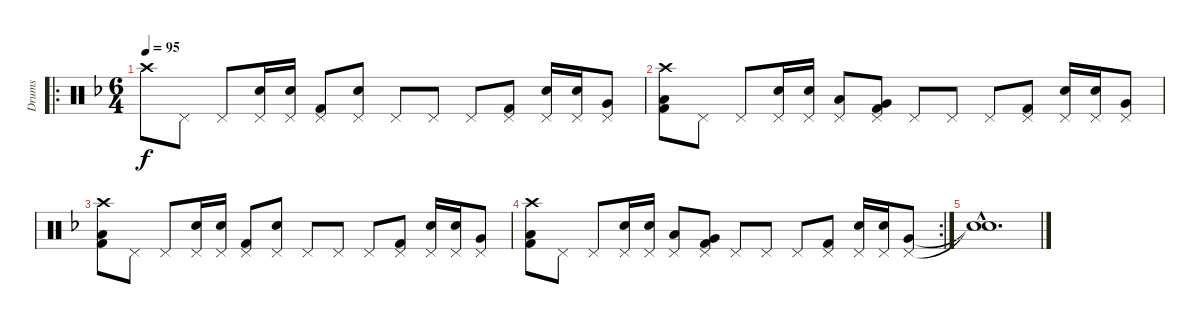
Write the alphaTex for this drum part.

\track ("Drums" "Drums") {instrument percussion}
\staff {score}
\articulation defaults
\ro
\ts (6 4)
\tempo 95
\clef neutral
\ks dminor "Crash high (hit)".8{dy f} "Pedal Hi-Hat (hit)".8 "Pedal Hi-Hat (hit)".8
("Pedal Hi-Hat (hit)" "Snare (hit) 2").16 ("Pedal Hi-Hat (hit)" "Snare (hit) 2").16 ("Pedal Hi-Hat (hit)" "Kick (hit) 2").8 ("Pedal Hi-Hat (hit)" "Snare (hit) 2").8 "Pedal Hi-Hat (hit)".8 "Pedal Hi-Hat (hit)".8 "Pedal Hi-Hat (hit)".8 ("Pedal Hi-Hat (hit)" "Kick (hit) 2").8 ("Pedal Hi-Hat (hit)" "Snare (hit) 2").16 ("Pedal Hi-Hat (hit)" "Snare (hit) 2").16 ("Pedal Hi-Hat (hit)" "Very Low Tom (hit)").8 |
("Crash high (hit)" "Low Floor Tom (hit)" "Kick (hit) 2").8 "Pedal Hi-Hat (hit)".8 "Pedal Hi-Hat (hit)".8 ("Pedal Hi-Hat (hit)" "Snare (hit) 2").16 ("Pedal Hi-Hat (hit)" "Snare (hit) 2").16 ("Pedal Hi-Hat (hit)" "Low Tom (hit)").8 ("Pedal Hi-Hat (hit)" "Very Low Tom (hit)" "Kick (hit) 2").8 "Pedal Hi-Hat (hit)".8 "Pedal Hi-Hat (hit)".8 "Pedal Hi-Hat (hit)".8 ("Pedal Hi-Hat (hit)" "Kick (hit) 2").8 ("Pedal Hi-Hat (hit)" "Snare (hit) 2").16 ("Pedal Hi-Hat (hit)" "Snare (hit) 2").16 ("Pedal Hi-Hat (hit)" "Very Low Tom (hit)").8 |
("Crash high (hit)" "Low Floor Tom (hit)" "Kick (hit) 2").8 "Pedal Hi-Hat (hit)".8 "Pedal Hi-Hat (hit)".8 ("Pedal Hi-Hat (hit)" "Snare (hit) 2").16 ("Pedal Hi-Hat (hit)" "Snare (hit) 2").16 ("Pedal Hi-Hat (hit)" "Kick (hit) 2").8 ("Pedal Hi-Hat (hit)" "Snare (hit) 2").8 "Pedal Hi-Hat (hit)".8 "Pedal Hi-Hat (hit)".8 "Pedal Hi-Hat (hit)".8 ("Pedal Hi-Hat (hit)" "Kick (hit) 2").8 ("Pedal Hi-Hat (hit)" "Snare (hit) 2").16 ("Pedal Hi-Hat (hit)" "Snare (hit) 2").16 ("Pedal Hi-Hat (hit)" "Very Low Tom (hit)").8 |
\rc 2
("Crash high (hit)" "Low Floor Tom (hit)" "Kick (hit) 2").8 "Pedal Hi-Hat (hit)".8 "Pedal Hi-Hat (hit)".8 ("Pedal Hi-Hat (hit)" "Snare (hit) 2").16 ("Pedal Hi-Hat (hit)" "Snare (hit) 2").16 ("Pedal Hi-Hat (hit)" "Low Tom (hit)").8 ("Pedal Hi-Hat (hit)" "Very Low Tom (hit)" "Kick (hit) 2").8 "Pedal Hi-Hat (hit)".8 "Pedal Hi-Hat (hit)".8 "Pedal Hi-Hat (hit)".8 ("Pedal Hi-Hat (hit)" "Kick (hit) 2").8 ("Pedal Hi-Hat (hit)" "Snare (hit) 2").16 ("Pedal Hi-Hat (hit)" "Snare (hit) 2").16 ("Pedal Hi-Hat (hit)" "Very Low Tom (hit)").8 |
("Snare (hit)"{hac t} "Snare (hit)"{hac t}).1{d}
